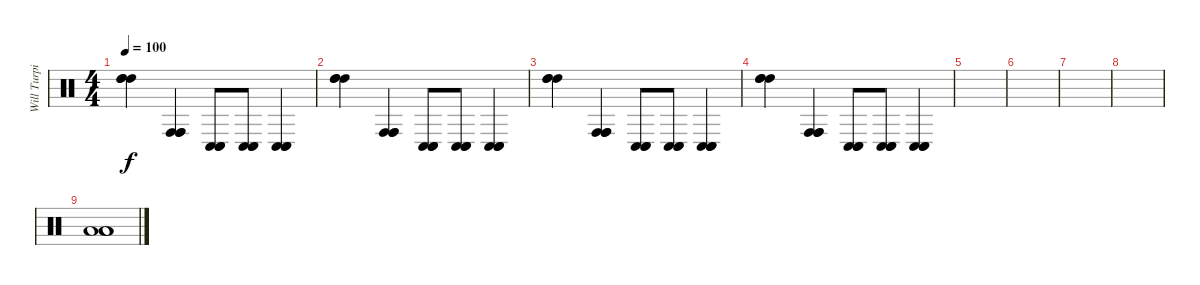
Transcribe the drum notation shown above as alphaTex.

\track ("Will Turpin" "Will Turpi") {instrument percussion}
\staff {score}
\articulation defaults
\ts (4 4)
\tempo 100
\clef neutral
\ks c
("High Tom (hit)" "High Tom (hit)" "High Tom (hit)").4{dy f} ("Conga high (hit)" "Conga high (hit)" "Conga high (hit)").4 ("Conga low (hit)" "Conga low (hit)" "Conga low (hit)").8 ("Conga low (hit)" "Conga low (hit)" "Conga low (hit)").8 ("Conga low (hit)" "Conga low (hit)" "Conga low (hit)").4 |
("High Tom (hit)" "High Tom (hit)" "High Tom (hit)").4 ("Conga high (hit)" "Conga high (hit)" "Conga high (hit)").4 ("Conga low (hit)" "Conga low (hit)" "Conga low (hit)").8 ("Conga low (hit)" "Conga low (hit)" "Conga low (hit)").8 ("Conga low (hit)" "Conga low (hit)" "Conga low (hit)").4 |
("High Tom (hit)" "High Tom (hit)" "High Tom (hit)").4 ("Conga high (hit)" "Conga high (hit)" "Conga high (hit)").4 ("Conga low (hit)" "Conga low (hit)" "Conga low (hit)").8 ("Conga low (hit)" "Conga low (hit)" "Conga low (hit)").8 ("Conga low (hit)" "Conga low (hit)" "Conga low (hit)").4 |
("High Tom (hit)" "High Tom (hit)" "High Tom (hit)").4 ("Conga high (hit)" "Conga high (hit)" "Conga high (hit)").4 ("Conga low (hit)" "Conga low (hit)" "Conga low (hit)").8 ("Conga low (hit)" "Conga low (hit)" "Conga low (hit)").8 ("Conga low (hit)" "Conga low (hit)" "Conga low (hit)").4 |
|
|
|
|
("Low Tom (hit)" "Low Tom (hit)" "Low Tom (hit)").1
